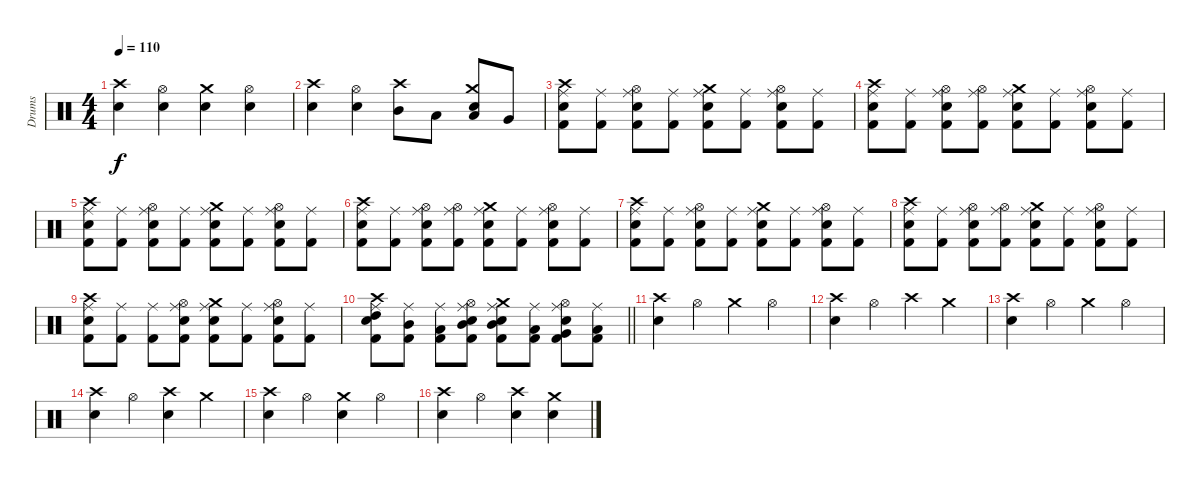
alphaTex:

\track ("Drums" "Drums") {instrument percussion}
\staff {score}
\articulation defaults
\ts (4 4)
\tempo 110
\clef neutral
\ks c
("Crash high (hit)" "Snare (hit) 2").4{dy f} ("Hi-Hat (open)" "Snare (hit) 2").4 ("Crash medium (hit)" "Snare (hit) 2").4 ("Hi-Hat (open)" "Snare (hit) 2").4 |
("Crash high (hit)" "Snare (hit) 2").4 ("Hi-Hat (open)" "Snare (hit) 2").4 ("Crash high (hit)" "Mid Tom (hit)").8 "Low Tom (hit)".8 ("Crash medium (hit)" "Low Tom (hit)" "Snare (hit) 2").8 "Very Low Tom (hit)".8 |
("Kick (hit) 2" "Crash high (hit)" "Ride (middle)" "Snare (hit) 2").8 ("Kick (hit) 2" "Ride (middle)").8 ("Kick (hit) 2" "Hi-Hat (open)" "Ride (middle)" "Snare (hit) 2").8 ("Kick (hit) 2" "Ride (middle)").8 ("Kick (hit) 2" "Crash medium (hit)" "Ride (middle)" "Snare (hit) 2").8 ("Kick (hit) 2" "Ride (middle)").8 ("Kick (hit) 2" "Hi-Hat (open)" "Ride (middle)" "Snare (hit) 2").8 ("Kick (hit) 2" "Ride (middle)").8 |
("Kick (hit) 2" "Crash high (hit)" "Ride (middle)" "Snare (hit) 2").8 ("Kick (hit) 2" "Ride (middle)").8 ("Kick (hit) 2" "Hi-Hat (open)" "Ride (middle)" "Snare (hit) 2").8 ("Kick (hit) 2" "Hi-Hat (open)" "Ride (middle)").8 ("Kick (hit) 2" "Crash medium (hit)" "Ride (middle)" "Snare (hit) 2").8 ("Kick (hit) 2" "Ride (middle)").8 ("Kick (hit) 2" "Hi-Hat (open)" "Ride (middle)" "Snare (hit) 2").8 ("Kick (hit) 2" "Ride (middle)").8 |
("Kick (hit) 2" "Crash high (hit)" "Ride (middle)" "Snare (hit) 2").8 ("Kick (hit) 2" "Ride (middle)").8 ("Kick (hit) 2" "Hi-Hat (open)" "Ride (middle)" "Snare (hit) 2").8 ("Kick (hit) 2" "Ride (middle)").8 ("Kick (hit) 2" "Crash medium (hit)" "Ride (middle)" "Snare (hit) 2").8 ("Kick (hit) 2" "Ride (middle)").8 ("Kick (hit) 2" "Hi-Hat (open)" "Ride (middle)" "Snare (hit) 2").8 ("Kick (hit) 2" "Ride (middle)").8 |
("Kick (hit) 2" "Crash high (hit)" "Ride (middle)" "Snare (hit) 2").8 ("Kick (hit) 2" "Ride (middle)").8 ("Kick (hit) 2" "Hi-Hat (open)" "Ride (middle)" "Snare (hit) 2").8 ("Kick (hit) 2" "Hi-Hat (open)" "Ride (middle)").8 ("Kick (hit) 2" "Crash medium (hit)" "Ride (middle)" "Snare (hit) 2").8 ("Kick (hit) 2" "Ride (middle)").8 ("Kick (hit) 2" "Hi-Hat (open)" "Ride (middle)" "Snare (hit) 2").8 ("Kick (hit) 2" "Ride (middle)").8 |
("Kick (hit) 2" "Crash high (hit)" "Ride (middle)" "Snare (hit) 2").8 ("Kick (hit) 2" "Ride (middle)").8 ("Kick (hit) 2" "Hi-Hat (open)" "Ride (middle)" "Snare (hit) 2").8 ("Kick (hit) 2" "Ride (middle)").8 ("Kick (hit) 2" "Crash medium (hit)" "Ride (middle)" "Snare (hit) 2").8 ("Kick (hit) 2" "Ride (middle)").8 ("Kick (hit) 2" "Hi-Hat (open)" "Ride (middle)" "Snare (hit) 2").8 ("Kick (hit) 2" "Ride (middle)").8 |
("Kick (hit) 2" "Crash high (hit)" "Ride (middle)" "Snare (hit) 2").8 ("Kick (hit) 2" "Ride (middle)").8 ("Kick (hit) 2" "Hi-Hat (open)" "Ride (middle)" "Snare (hit) 2").8 ("Kick (hit) 2" "Hi-Hat (open)" "Ride (middle)").8 ("Kick (hit) 2" "Crash medium (hit)" "Ride (middle)" "Snare (hit) 2").8 ("Kick (hit) 2" "Ride (middle)").8 ("Kick (hit) 2" "Hi-Hat (open)" "Ride (middle)" "Snare (hit) 2").8 ("Kick (hit) 2" "Ride (middle)").8 |
("Kick (hit) 2" "Crash high (hit)" "Ride (middle)" "Snare (hit) 2").8 ("Kick (hit) 2" "Ride (middle)").8 ("Kick (hit) 2" "Ride (middle)").8 ("Kick (hit) 2" "Hi-Hat (open)" "Ride (middle)" "Snare (hit) 2").8 ("Kick (hit) 2" "Crash medium (hit)" "Ride (middle)" "Snare (hit) 2").8 ("Kick (hit) 2" "Ride (middle)").8 ("Kick (hit) 2" "Hi-Hat (open)" "Ride (middle)" "Snare (hit) 2").8 ("Kick (hit) 2" "Ride (middle)").8 |
\barLineRight lightlight
("Kick (hit) 2" "Crash high (hit)" "Ride (middle)" "High Tom (hit)" "Snare (hit) 2").8 ("Kick (hit) 2" "Ride (middle)" "Mid Tom (hit)").8 ("Kick (hit) 2" "Ride (middle)" "Low Tom (hit)").8 ("Kick (hit) 2" "Hi-Hat (open)" "Ride (middle)" "Mid Tom (hit)" "Snare (hit) 2").8 ("Kick (hit) 2" "Crash medium (hit)" "Ride (middle)" "Mid Tom (hit)" "Snare (hit) 2").8 ("Kick (hit) 2" "Ride (middle)" "Low Tom (hit)").8 ("Kick (hit) 2" "Hi-Hat (open)" "Ride (middle)" "Very Low Tom (hit)" "Snare (hit) 2").8 ("Kick (hit) 2" "Ride (middle)" "Low Floor Tom (hit)").8 |
\section ("" "")
("Crash high (hit)" "Snare (hit) 2").4 "Hi-Hat (open)".4 "Crash medium (hit)".4 "Hi-Hat (open)".4 |
("Crash high (hit)" "Snare (hit) 2").4 "Hi-Hat (open)".4 "Crash high (hit)".4 "Crash medium (hit)".4 |
("Crash high (hit)" "Snare (hit) 2").4 "Hi-Hat (open)".4 "Crash medium (hit)".4 "Hi-Hat (open)".4 |
("Crash high (hit)" "Snare (hit) 2").4 "Hi-Hat (open)".4 ("Crash high (hit)" "Snare (hit) 2").4 "Crash medium (hit)".4 |
("Crash high (hit)" "Snare (hit) 2").4 "Hi-Hat (open)".4 ("Crash medium (hit)" "Snare (hit) 2").4 "Hi-Hat (open)".4 |
("Crash high (hit)" "Snare (hit) 2").4 "Hi-Hat (open)".4 ("Crash high (hit)" "Snare (hit) 2").4 ("Crash medium (hit)" "Snare (hit) 2").4
